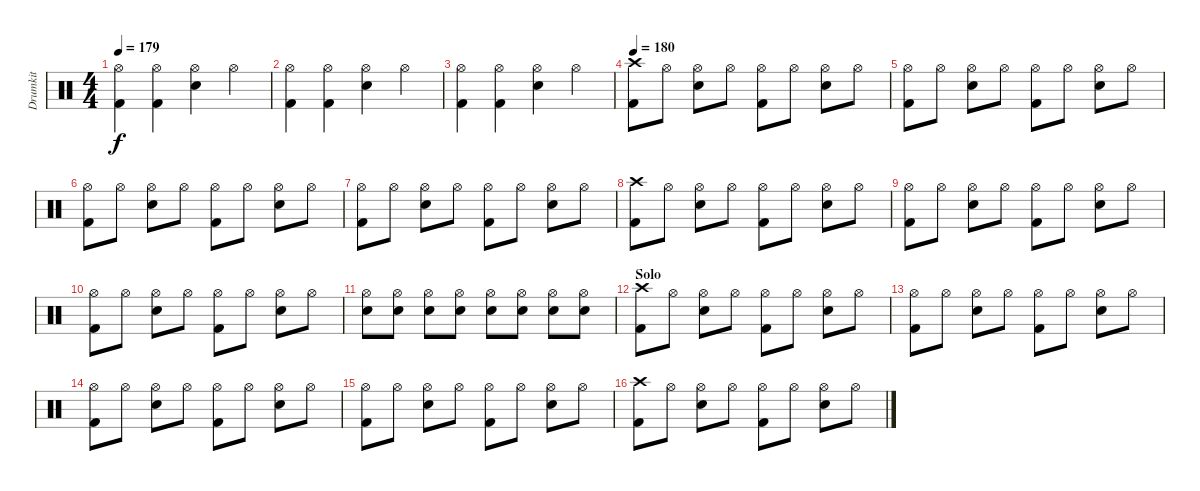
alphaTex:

\track ("Drumkit" "Drumkit") {instrument percussion}
\staff {score}
\articulation defaults
\ts (4 4)
\tempo 179
\clef neutral
\ks c
("Kick (hit) 2" "Hi-Hat (open)").4{dy f} ("Kick (hit) 2" "Hi-Hat (open)").4 ("Snare (hit) 2" "Hi-Hat (open)").4 "Hi-Hat (open)".4 |
("Kick (hit) 2" "Hi-Hat (open)").4 ("Kick (hit) 2" "Hi-Hat (open)").4 ("Snare (hit) 2" "Hi-Hat (open)").4 "Hi-Hat (open)".4 |
("Kick (hit) 2" "Hi-Hat (open)").4 ("Kick (hit) 2" "Hi-Hat (open)").4 ("Snare (hit) 2" "Hi-Hat (open)").4 "Hi-Hat (open)".4 |
\tempo 180
("Crash high (hit)" "Kick (hit) 2").8 "Hi-Hat (open)".8 ("Snare (hit) 2" "Hi-Hat (open)").8 "Hi-Hat (open)".8 ("Kick (hit) 2" "Hi-Hat (open)").8 "Hi-Hat (open)".8 ("Snare (hit) 2" "Hi-Hat (open)").8 "Hi-Hat (open)".8 |
("Kick (hit) 2" "Hi-Hat (open)").8 "Hi-Hat (open)".8 ("Snare (hit) 2" "Hi-Hat (open)").8 "Hi-Hat (open)".8 ("Kick (hit) 2" "Hi-Hat (open)").8 "Hi-Hat (open)".8 ("Snare (hit) 2" "Hi-Hat (open)").8 "Hi-Hat (open)".8 |
("Kick (hit) 2" "Hi-Hat (open)").8 "Hi-Hat (open)".8 ("Snare (hit) 2" "Hi-Hat (open)").8 "Hi-Hat (open)".8 ("Kick (hit) 2" "Hi-Hat (open)").8 "Hi-Hat (open)".8 ("Snare (hit) 2" "Hi-Hat (open)").8 "Hi-Hat (open)".8 |
("Kick (hit) 2" "Hi-Hat (open)").8 "Hi-Hat (open)".8 ("Snare (hit) 2" "Hi-Hat (open)").8 "Hi-Hat (open)".8 ("Kick (hit) 2" "Hi-Hat (open)").8 "Hi-Hat (open)".8 ("Snare (hit) 2" "Hi-Hat (open)").8 "Hi-Hat (open)".8 |
("Crash high (hit)" "Kick (hit) 2").8 "Hi-Hat (open)".8 ("Snare (hit) 2" "Hi-Hat (open)").8 "Hi-Hat (open)".8 ("Kick (hit) 2" "Hi-Hat (open)").8 "Hi-Hat (open)".8 ("Snare (hit) 2" "Hi-Hat (open)").8 "Hi-Hat (open)".8 |
("Kick (hit) 2" "Hi-Hat (open)").8 "Hi-Hat (open)".8 ("Snare (hit) 2" "Hi-Hat (open)").8 "Hi-Hat (open)".8 ("Kick (hit) 2" "Hi-Hat (open)").8 "Hi-Hat (open)".8 ("Snare (hit) 2" "Hi-Hat (open)").8 "Hi-Hat (open)".8 |
("Kick (hit) 2" "Hi-Hat (open)").8 "Hi-Hat (open)".8 ("Snare (hit) 2" "Hi-Hat (open)").8 "Hi-Hat (open)".8 ("Kick (hit) 2" "Hi-Hat (open)").8 "Hi-Hat (open)".8 ("Snare (hit) 2" "Hi-Hat (open)").8 "Hi-Hat (open)".8 |
("Snare (hit) 2" "Hi-Hat (open)").8 ("Snare (hit) 2" "Hi-Hat (open)").8 ("Snare (hit) 2" "Hi-Hat (open)").8 ("Snare (hit) 2" "Hi-Hat (open)").8 ("Snare (hit) 2" "Hi-Hat (open)").8 ("Snare (hit) 2" "Hi-Hat (open)").8 ("Snare (hit) 2" "Hi-Hat (open)").8 ("Snare (hit) 2" "Hi-Hat (open)").8 |
\section ("" "Solo")
("Crash high (hit)" "Kick (hit) 2").8 "Hi-Hat (open)".8 ("Snare (hit) 2" "Hi-Hat (open)").8 "Hi-Hat (open)".8 ("Kick (hit) 2" "Hi-Hat (open)").8 "Hi-Hat (open)".8 ("Snare (hit) 2" "Hi-Hat (open)").8 "Hi-Hat (open)".8 |
("Kick (hit) 2" "Hi-Hat (open)").8 "Hi-Hat (open)".8 ("Snare (hit) 2" "Hi-Hat (open)").8 "Hi-Hat (open)".8 ("Kick (hit) 2" "Hi-Hat (open)").8 "Hi-Hat (open)".8 ("Snare (hit) 2" "Hi-Hat (open)").8 "Hi-Hat (open)".8 |
("Kick (hit) 2" "Hi-Hat (open)").8 "Hi-Hat (open)".8 ("Snare (hit) 2" "Hi-Hat (open)").8 "Hi-Hat (open)".8 ("Kick (hit) 2" "Hi-Hat (open)").8 "Hi-Hat (open)".8 ("Snare (hit) 2" "Hi-Hat (open)").8 "Hi-Hat (open)".8 |
("Kick (hit) 2" "Hi-Hat (open)").8 "Hi-Hat (open)".8 ("Snare (hit) 2" "Hi-Hat (open)").8 "Hi-Hat (open)".8 ("Kick (hit) 2" "Hi-Hat (open)").8 "Hi-Hat (open)".8 ("Snare (hit) 2" "Hi-Hat (open)").8 "Hi-Hat (open)".8 |
("Crash high (hit)" "Kick (hit) 2").8 "Hi-Hat (open)".8 ("Snare (hit) 2" "Hi-Hat (open)").8 "Hi-Hat (open)".8 ("Kick (hit) 2" "Hi-Hat (open)").8 "Hi-Hat (open)".8 ("Snare (hit) 2" "Hi-Hat (open)").8 "Hi-Hat (open)".8
